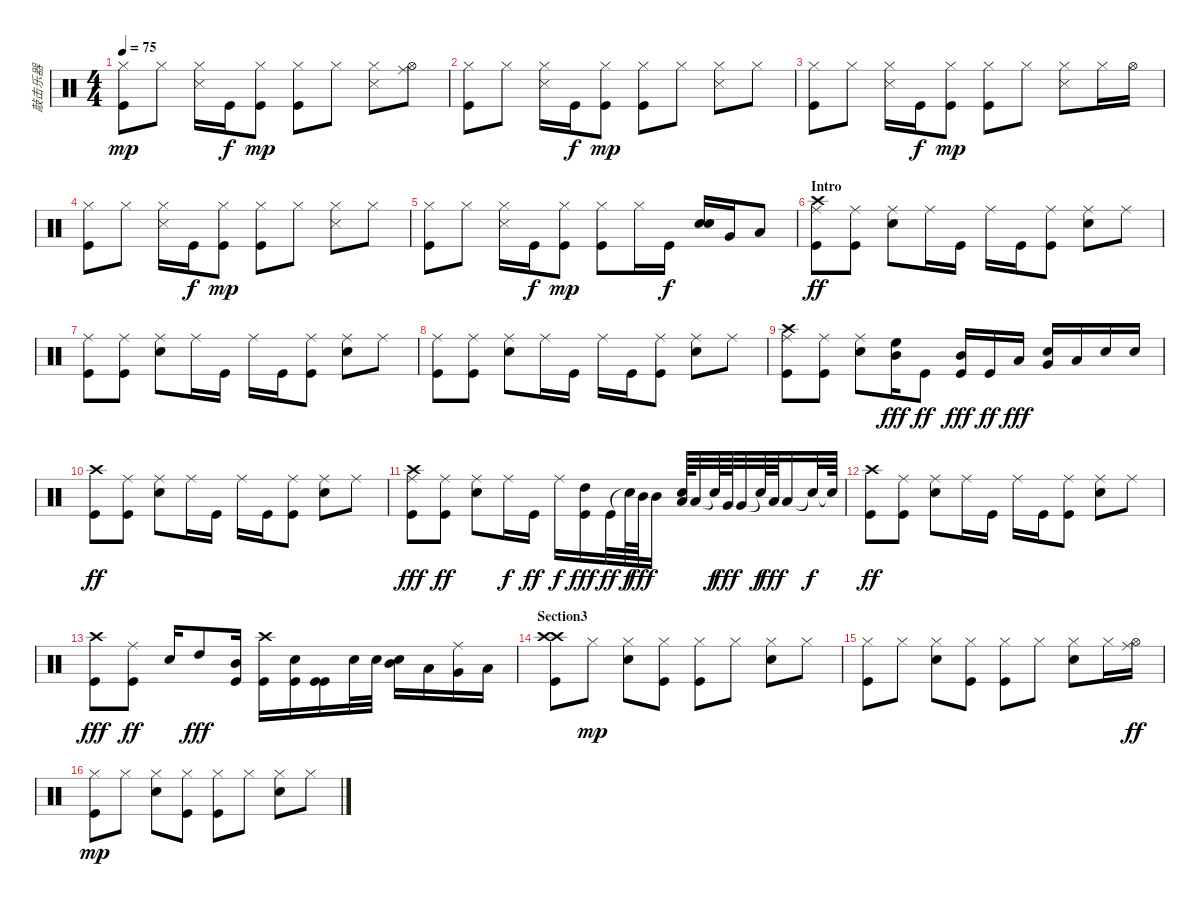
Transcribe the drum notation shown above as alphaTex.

\track ("敲击乐器" "敲击乐器") {instrument percussion}
\staff {score}
\articulation defaults
\ts (4 4)
\tempo 75
\clef neutral
\ks c
("Kick (hit)" "Hi-Hat (closed)").8{dy mp} "Hi-Hat (closed)".8 ("Snare (side stick) 3" "Hi-Hat (closed)").16 "Kick (hit)".16{dy f} ("Kick (hit)" "Hi-Hat (closed)").8{dy mp} ("Kick (hit)" "Hi-Hat (closed)").8 "Hi-Hat (closed)".8 ("Snare (side stick) 3" "Hi-Hat (closed)").8 ("Ride (middle)" "Hi-Hat (open)").8 |
("Kick (hit)" "Hi-Hat (closed)").8 "Hi-Hat (closed)".8 ("Snare (side stick) 3" "Hi-Hat (closed)").16 "Kick (hit)".16{dy f} ("Kick (hit)" "Hi-Hat (closed)").8{dy mp} ("Kick (hit)" "Hi-Hat (closed)").8 "Hi-Hat (closed)".8 ("Snare (side stick) 3" "Hi-Hat (closed)").8 "Hi-Hat (closed)".8 |
("Kick (hit)" "Hi-Hat (closed)").8 "Hi-Hat (closed)".8 ("Snare (side stick) 3" "Hi-Hat (closed)").16 "Kick (hit)".16{dy f} ("Kick (hit)" "Hi-Hat (closed)").8{dy mp} ("Kick (hit)" "Hi-Hat (closed)").8 "Hi-Hat (closed)".8 ("Snare (side stick) 3" "Hi-Hat (closed)").8 "Hi-Hat (closed)".16 "Hi-Hat (open)".16 |
("Kick (hit)" "Hi-Hat (closed)").8 "Hi-Hat (closed)".8 ("Snare (side stick) 3" "Hi-Hat (closed)").16 "Kick (hit)".16{dy f} ("Kick (hit)" "Hi-Hat (closed)").8{dy mp} ("Kick (hit)" "Hi-Hat (closed)").8 "Hi-Hat (closed)".8 ("Snare (side stick) 3" "Hi-Hat (closed)").8 "Hi-Hat (closed)".8 |
("Kick (hit)" "Hi-Hat (closed)").8 "Hi-Hat (closed)".8 ("Snare (side stick) 3" "Hi-Hat (closed)").16 "Kick (hit)".16{dy f} ("Kick (hit)" "Hi-Hat (closed)").8{dy mp} ("Kick (hit)" "Hi-Hat (closed)").8 "Hi-Hat (closed)".16 "Kick (hit)".16{dy f} ("Electric Snare (hit)" "Electric Snare (hit)").16 "Very Low Tom (hit)".16 "Low Floor Tom (hit)".8 |
\section ("" "Intro")
("Kick (hit)" "Crash high (hit)" "Ride (middle)").8{dy ff} ("Kick (hit)" "Ride (middle)").8 ("Electric Snare (hit)" "Ride (middle)").8 "Ride (middle)".16 "Kick (hit)".16 "Ride (middle)".16 "Kick (hit)".16 ("Kick (hit)" "Ride (middle)").8 ("Electric Snare (hit)" "Ride (middle)").8 "Ride (middle)".8 |
("Kick (hit)" "Ride (middle)").8 ("Kick (hit)" "Ride (middle)").8 ("Electric Snare (hit)" "Ride (middle)").8 "Ride (middle)".16 "Kick (hit)".16 "Ride (middle)".16 "Kick (hit)".16 ("Kick (hit)" "Ride (middle)").8 ("Electric Snare (hit)" "Ride (middle)").8 "Ride (middle)".8 |
("Kick (hit)" "Ride (middle)").8 ("Kick (hit)" "Ride (middle)").8 ("Electric Snare (hit)" "Ride (middle)").8 "Ride (middle)".16 "Kick (hit)".16 "Ride (middle)".16 "Kick (hit)".16 ("Kick (hit)" "Ride (middle)").8 ("Electric Snare (hit)" "Ride (middle)").8 "Ride (middle)".8 |
("Kick (hit)" "Crash high (hit)" "Ride (middle)").8 ("Kick (hit)" "Ride (middle)").8 ("Electric Snare (hit)" "Ride (middle)").8 ("Mid Tom (hit)" "High Floor Tom (hit)").16{dy fff} "Kick (hit)".8{dy ff} ("Kick (hit)" "Mid Tom (hit)").16{dy fff} "Kick (hit)".16{dy ff} "Low Tom (hit)".16{dy fff} ("Electric Snare (hit)" "Very Low Tom (hit)").16 "Low Floor Tom (hit)".16 "Electric Snare (hit)".16 "Electric Snare (hit)".16 |
("Kick (hit)" "Crash high (hit)").8{dy ff} ("Kick (hit)" "Ride (middle)").8 ("Electric Snare (hit)" "Ride (middle)").8 "Ride (middle)".16 "Kick (hit)".16 "Ride (middle)".16 "Kick (hit)".16 ("Kick (hit)" "Ride (middle)").8 ("Electric Snare (hit)" "Ride (middle)").8 "Ride (middle)".8 |
("Kick (hit)" "Crash high (hit)" "Ride (middle)").8{dy fff} ("Kick (hit)" "Ride (middle)").8{dy ff} ("Electric Snare (hit)" "Ride (middle)").8 "Ride (middle)".16{dy f} "Kick (hit)".16{dy ff} "Ride (middle)".16{dy f} ("Kick (hit)" "High Tom (hit)").16{dy fff} "Kick (hit)".32{dy ff} "Snare (hit)"{t}.64{dy f} "Mid Tom (hit)".64{dy fff} "Mid Tom (hit)".16 ("Electric Snare (hit)" "Low Tom (hit)").64 "Low Tom (hit)".32 "Snare (hit)"{t}.64{dy f} "Very Low Tom (hit)".64{dy fff} "Very Low Tom (hit)".32 "Snare (hit)"{t}.64{dy f} "Low Floor Tom (hit)".64{dy fff} "Low Floor Tom (hit)".16 "Snare (hit)"{t}.32{dy f} "Snare (hit)"{t}.64 |
("Kick (hit)" "Crash high (hit)").8{dy ff} ("Kick (hit)" "Ride (middle)").8 ("Electric Snare (hit)" "Ride (middle)").8 "Ride (middle)".16 "Kick (hit)".16 "Ride (middle)".16 "Kick (hit)".16 ("Kick (hit)" "Ride (middle)").8 ("Electric Snare (hit)" "Ride (middle)").8 "Ride (middle)".8 |
("Kick (hit)" "Crash high (hit)").8{dy fff} ("Kick (hit)" "Ride (middle)").8{dy ff} "Electric Snare (hit)".16 "High Tom (hit)".8{dy fff} ("Kick (hit)" "Mid Tom (hit)").16 ("Kick (hit)" "Crash high (hit)").16 ("Kick (hit)" "Snare (hit) 2").16 ("Kick (hit)" "Kick (hit)").16 "Snare (hit) 2".32 "Snare (hit) 2".32 ("Electric Snare (hit)" "Mid Tom (hit)").16 "Low Tom (hit)".16 ("Very Low Tom (hit)" "Ride (middle)").16 "Low Floor Tom (hit)".16 |
\section ("" "Section3")
("Kick (hit)" "Crash high (hit)" "Crash high (hit)").8 "Hi-Hat (closed)".8{dy mp} ("Electric Snare (hit)" "Hi-Hat (closed)").8 ("Kick (hit)" "Hi-Hat (closed)").8 ("Kick (hit)" "Hi-Hat (closed)").8 "Hi-Hat (closed)".8 ("Electric Snare (hit)" "Hi-Hat (closed)").8 "Hi-Hat (closed)".8 |
("Kick (hit)" "Hi-Hat (closed)").8 "Hi-Hat (closed)".8 ("Electric Snare (hit)" "Hi-Hat (closed)").8 ("Kick (hit)" "Hi-Hat (closed)").8 ("Kick (hit)" "Hi-Hat (closed)").8 "Hi-Hat (closed)".8 ("Electric Snare (hit)" "Hi-Hat (closed)").8 "Hi-Hat (closed)".16 ("Ride (middle)" "Hi-Hat (open)").16{dy ff} |
("Kick (hit)" "Hi-Hat (closed)").8{dy mp} "Hi-Hat (closed)".8 ("Electric Snare (hit)" "Hi-Hat (closed)").8 ("Kick (hit)" "Hi-Hat (closed)").8 ("Kick (hit)" "Hi-Hat (closed)").8 "Hi-Hat (closed)".8 ("Electric Snare (hit)" "Hi-Hat (closed)").8 "Hi-Hat (closed)".8
